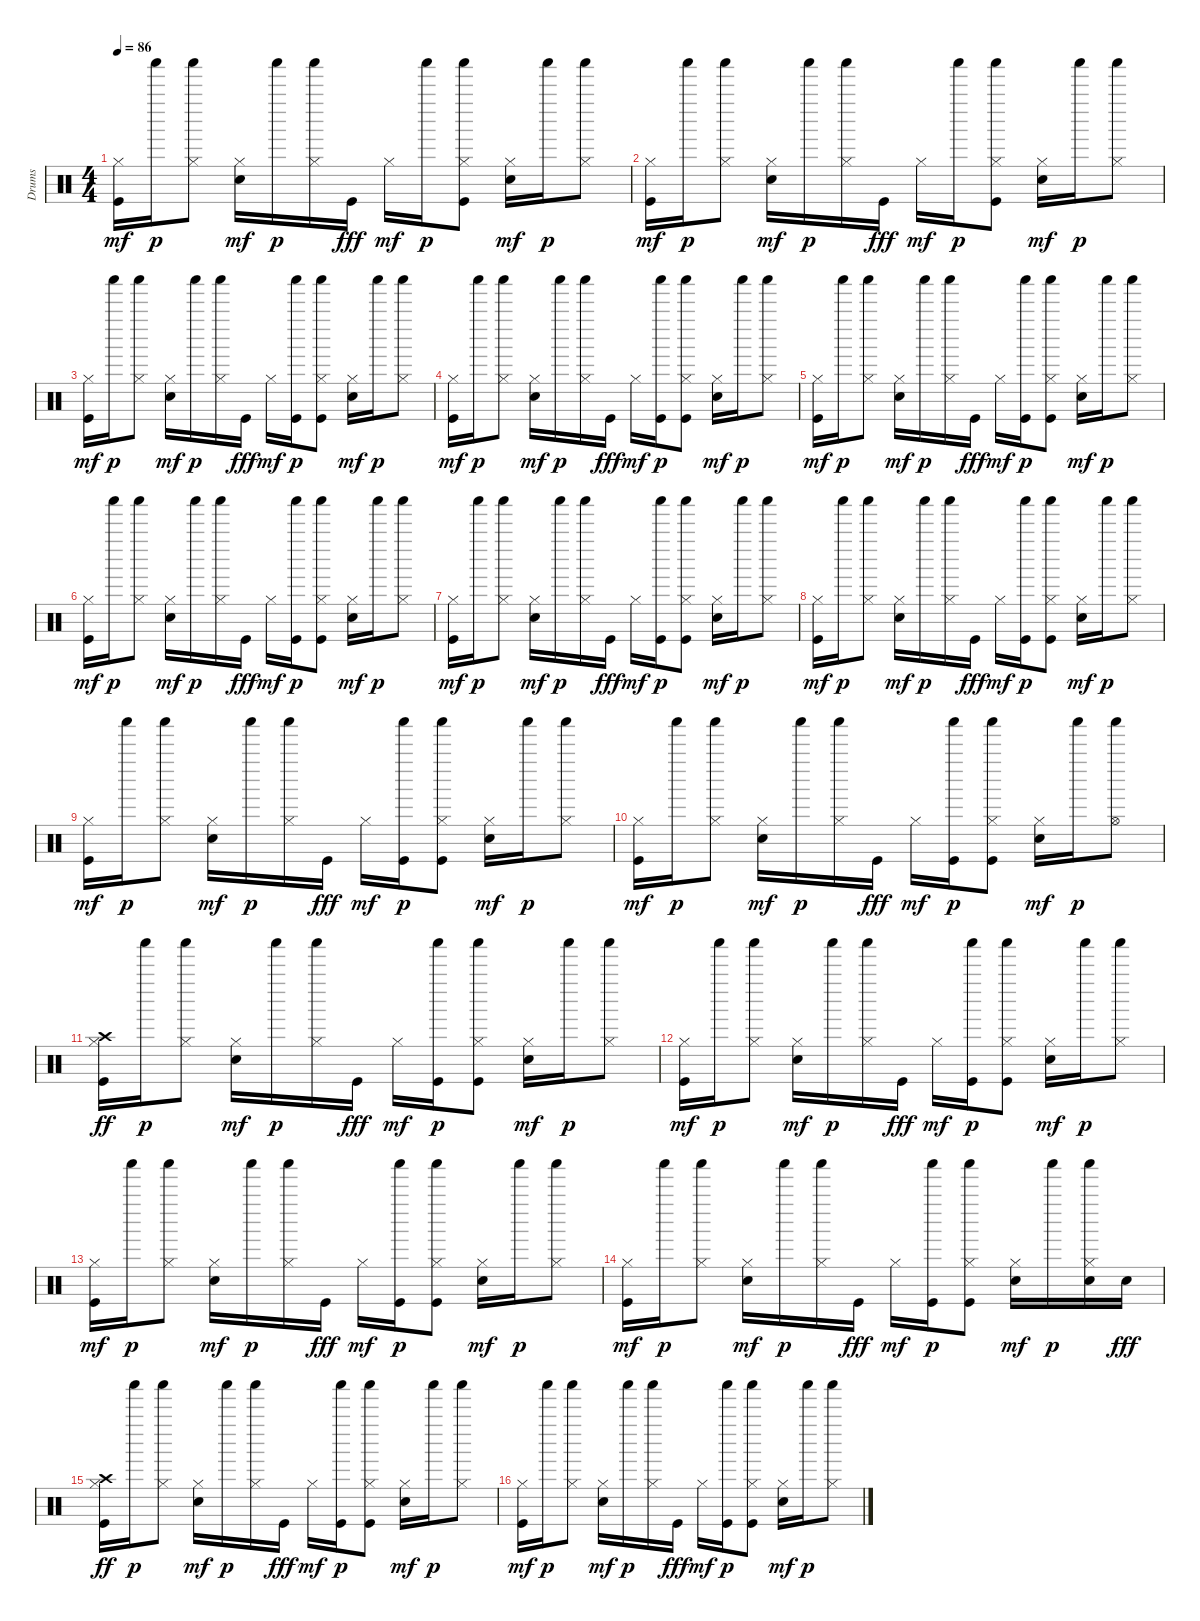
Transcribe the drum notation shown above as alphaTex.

\track ("Drums               " "Drums     ") {instrument percussion}
\staff {score}
\articulation defaults
\ts (4 4)
\tempo 86
\clef neutral
\ks c
("Kick (hit)" "Hi-Hat (closed)").16{dy mf} "Shaker (hit)".16{dy p} ("Hi-Hat (closed)" "Shaker (hit)").8 ("Snare (hit) 2" "Hi-Hat (closed)").16{dy mf} "Shaker (hit)".16{dy p} ("Hi-Hat (closed)" "Shaker (hit)").16 "Kick (hit)".16{dy fff} "Hi-Hat (closed)".16{dy mf} "Shaker (hit)".16{dy p} ("Kick (hit)" "Hi-Hat (closed)" "Shaker (hit)").8 ("Snare (hit) 2" "Hi-Hat (closed)").16{dy mf} "Shaker (hit)".16{dy p} ("Hi-Hat (closed)" "Shaker (hit)").8 |
("Kick (hit)" "Hi-Hat (closed)").16{dy mf} "Shaker (hit)".16{dy p} ("Hi-Hat (closed)" "Shaker (hit)").8 ("Snare (hit) 2" "Hi-Hat (closed)").16{dy mf} "Shaker (hit)".16{dy p} ("Hi-Hat (closed)" "Shaker (hit)").16 "Kick (hit)".16{dy fff} "Hi-Hat (closed)".16{dy mf} "Shaker (hit)".16{dy p} ("Kick (hit)" "Hi-Hat (closed)" "Shaker (hit)").8 ("Snare (hit) 2" "Hi-Hat (closed)").16{dy mf} "Shaker (hit)".16{dy p} ("Hi-Hat (closed)" "Shaker (hit)").8 |
("Kick (hit)" "Hi-Hat (closed)").16{dy mf} "Shaker (hit)".16{dy p} ("Hi-Hat (closed)" "Shaker (hit)").8 ("Snare (hit) 2" "Hi-Hat (closed)").16{dy mf} "Shaker (hit)".16{dy p} ("Hi-Hat (closed)" "Shaker (hit)").16 "Kick (hit)".16{dy fff} "Hi-Hat (closed)".16{dy mf} ("Kick (hit)" "Shaker (hit)").16{dy p} ("Kick (hit)" "Hi-Hat (closed)" "Shaker (hit)").8 ("Snare (hit) 2" "Hi-Hat (closed)").16{dy mf} "Shaker (hit)".16{dy p} ("Hi-Hat (closed)" "Shaker (hit)").8 |
("Kick (hit)" "Hi-Hat (closed)").16{dy mf} "Shaker (hit)".16{dy p} ("Hi-Hat (closed)" "Shaker (hit)").8 ("Snare (hit) 2" "Hi-Hat (closed)").16{dy mf} "Shaker (hit)".16{dy p} ("Hi-Hat (closed)" "Shaker (hit)").16 "Kick (hit)".16{dy fff} "Hi-Hat (closed)".16{dy mf} ("Kick (hit)" "Shaker (hit)").16{dy p} ("Kick (hit)" "Hi-Hat (closed)" "Shaker (hit)").8 ("Snare (hit) 2" "Hi-Hat (closed)").16{dy mf} "Shaker (hit)".16{dy p} ("Hi-Hat (closed)" "Shaker (hit)").8 |
("Kick (hit)" "Hi-Hat (closed)").16{dy mf} "Shaker (hit)".16{dy p} ("Hi-Hat (closed)" "Shaker (hit)").8 ("Snare (hit) 2" "Hi-Hat (closed)").16{dy mf} "Shaker (hit)".16{dy p} ("Hi-Hat (closed)" "Shaker (hit)").16 "Kick (hit)".16{dy fff} "Hi-Hat (closed)".16{dy mf} ("Kick (hit)" "Shaker (hit)").16{dy p} ("Kick (hit)" "Hi-Hat (closed)" "Shaker (hit)").8 ("Snare (hit) 2" "Hi-Hat (closed)").16{dy mf} "Shaker (hit)".16{dy p} ("Hi-Hat (closed)" "Shaker (hit)").8 |
("Kick (hit)" "Hi-Hat (closed)").16{dy mf} "Shaker (hit)".16{dy p} ("Hi-Hat (closed)" "Shaker (hit)").8 ("Snare (hit) 2" "Hi-Hat (closed)").16{dy mf} "Shaker (hit)".16{dy p} ("Hi-Hat (closed)" "Shaker (hit)").16 "Kick (hit)".16{dy fff} "Hi-Hat (closed)".16{dy mf} ("Kick (hit)" "Shaker (hit)").16{dy p} ("Kick (hit)" "Hi-Hat (closed)" "Shaker (hit)").8 ("Snare (hit) 2" "Hi-Hat (closed)").16{dy mf} "Shaker (hit)".16{dy p} ("Hi-Hat (closed)" "Shaker (hit)").8 |
("Kick (hit)" "Hi-Hat (closed)").16{dy mf} "Shaker (hit)".16{dy p} ("Hi-Hat (closed)" "Shaker (hit)").8 ("Snare (hit) 2" "Hi-Hat (closed)").16{dy mf} "Shaker (hit)".16{dy p} ("Hi-Hat (closed)" "Shaker (hit)").16 "Kick (hit)".16{dy fff} "Hi-Hat (closed)".16{dy mf} ("Kick (hit)" "Shaker (hit)").16{dy p} ("Kick (hit)" "Hi-Hat (closed)" "Shaker (hit)").8 ("Snare (hit) 2" "Hi-Hat (closed)").16{dy mf} "Shaker (hit)".16{dy p} ("Hi-Hat (closed)" "Shaker (hit)").8 |
("Kick (hit)" "Hi-Hat (closed)").16{dy mf} "Shaker (hit)".16{dy p} ("Hi-Hat (closed)" "Shaker (hit)").8 ("Snare (hit) 2" "Hi-Hat (closed)").16{dy mf} "Shaker (hit)".16{dy p} ("Hi-Hat (closed)" "Shaker (hit)").16 "Kick (hit)".16{dy fff} "Hi-Hat (closed)".16{dy mf} ("Kick (hit)" "Shaker (hit)").16{dy p} ("Kick (hit)" "Hi-Hat (closed)" "Shaker (hit)").8 ("Snare (hit) 2" "Hi-Hat (closed)").16{dy mf} "Shaker (hit)".16{dy p} ("Hi-Hat (closed)" "Shaker (hit)").8 |
("Kick (hit)" "Hi-Hat (closed)").16{dy mf} "Shaker (hit)".16{dy p} ("Hi-Hat (closed)" "Shaker (hit)").8 ("Snare (hit) 2" "Hi-Hat (closed)").16{dy mf} "Shaker (hit)".16{dy p} ("Hi-Hat (closed)" "Shaker (hit)").16 "Kick (hit)".16{dy fff} "Hi-Hat (closed)".16{dy mf} ("Kick (hit)" "Shaker (hit)").16{dy p} ("Kick (hit)" "Hi-Hat (closed)" "Shaker (hit)").8 ("Snare (hit) 2" "Hi-Hat (closed)").16{dy mf} "Shaker (hit)".16{dy p} ("Hi-Hat (closed)" "Shaker (hit)").8 |
("Kick (hit)" "Hi-Hat (closed)").16{dy mf} "Shaker (hit)".16{dy p} ("Hi-Hat (closed)" "Shaker (hit)").8 ("Snare (hit) 2" "Hi-Hat (closed)").16{dy mf} "Shaker (hit)".16{dy p} ("Hi-Hat (closed)" "Shaker (hit)").16 "Kick (hit)".16{dy fff} "Hi-Hat (closed)".16{dy mf} ("Kick (hit)" "Shaker (hit)").16{dy p} ("Kick (hit)" "Hi-Hat (closed)" "Shaker (hit)").8 ("Snare (hit) 2" "Hi-Hat (closed)").16{dy mf} "Shaker (hit)".16{dy p} ("Hi-Hat (open)" "Shaker (hit)").8 |
("Kick (hit)" "Hi-Hat (closed)" "Crash high (hit)").16{dy ff} "Shaker (hit)".16{dy p} ("Hi-Hat (closed)" "Shaker (hit)").8 ("Snare (hit) 2" "Hi-Hat (closed)").16{dy mf} "Shaker (hit)".16{dy p} ("Hi-Hat (closed)" "Shaker (hit)").16 "Kick (hit)".16{dy fff} "Hi-Hat (closed)".16{dy mf} ("Kick (hit)" "Shaker (hit)").16{dy p} ("Kick (hit)" "Hi-Hat (closed)" "Shaker (hit)").8 ("Snare (hit) 2" "Hi-Hat (closed)").16{dy mf} "Shaker (hit)".16{dy p} ("Hi-Hat (closed)" "Shaker (hit)").8 |
("Kick (hit)" "Hi-Hat (closed)").16{dy mf} "Shaker (hit)".16{dy p} ("Hi-Hat (closed)" "Shaker (hit)").8 ("Snare (hit) 2" "Hi-Hat (closed)").16{dy mf} "Shaker (hit)".16{dy p} ("Hi-Hat (closed)" "Shaker (hit)").16 "Kick (hit)".16{dy fff} "Hi-Hat (closed)".16{dy mf} ("Kick (hit)" "Shaker (hit)").16{dy p} ("Kick (hit)" "Hi-Hat (closed)" "Shaker (hit)").8 ("Snare (hit) 2" "Hi-Hat (closed)").16{dy mf} "Shaker (hit)".16{dy p} ("Hi-Hat (closed)" "Shaker (hit)").8 |
("Kick (hit)" "Hi-Hat (closed)").16{dy mf} "Shaker (hit)".16{dy p} ("Hi-Hat (closed)" "Shaker (hit)").8 ("Snare (hit) 2" "Hi-Hat (closed)").16{dy mf} "Shaker (hit)".16{dy p} ("Hi-Hat (closed)" "Shaker (hit)").16 "Kick (hit)".16{dy fff} "Hi-Hat (closed)".16{dy mf} ("Kick (hit)" "Shaker (hit)").16{dy p} ("Kick (hit)" "Hi-Hat (closed)" "Shaker (hit)").8 ("Snare (hit) 2" "Hi-Hat (closed)").16{dy mf} "Shaker (hit)".16{dy p} ("Hi-Hat (closed)" "Shaker (hit)").8 |
("Kick (hit)" "Hi-Hat (closed)").16{dy mf} "Shaker (hit)".16{dy p} ("Hi-Hat (closed)" "Shaker (hit)").8 ("Snare (hit) 2" "Hi-Hat (closed)").16{dy mf} "Shaker (hit)".16{dy p} ("Hi-Hat (closed)" "Shaker (hit)").16 "Kick (hit)".16{dy fff} "Hi-Hat (closed)".16{dy mf} ("Kick (hit)" "Shaker (hit)").16{dy p} ("Kick (hit)" "Hi-Hat (closed)" "Shaker (hit)").8 ("Snare (hit) 2" "Hi-Hat (closed)").16{dy mf} "Shaker (hit)".16{dy p} ("Snare (hit) 2" "Hi-Hat (closed)" "Shaker (hit)").16 "Snare (hit) 2".16{dy fff} |
("Kick (hit)" "Hi-Hat (closed)" "Crash high (hit)").16{dy ff} "Shaker (hit)".16{dy p} ("Hi-Hat (closed)" "Shaker (hit)").8 ("Snare (hit) 2" "Hi-Hat (closed)").16{dy mf} "Shaker (hit)".16{dy p} ("Hi-Hat (closed)" "Shaker (hit)").16 "Kick (hit)".16{dy fff} "Hi-Hat (closed)".16{dy mf} ("Kick (hit)" "Shaker (hit)").16{dy p} ("Kick (hit)" "Hi-Hat (closed)" "Shaker (hit)").8 ("Snare (hit) 2" "Hi-Hat (closed)").16{dy mf} "Shaker (hit)".16{dy p} ("Hi-Hat (closed)" "Shaker (hit)").8 |
("Kick (hit)" "Hi-Hat (closed)").16{dy mf} "Shaker (hit)".16{dy p} ("Hi-Hat (closed)" "Shaker (hit)").8 ("Snare (hit) 2" "Hi-Hat (closed)").16{dy mf} "Shaker (hit)".16{dy p} ("Hi-Hat (closed)" "Shaker (hit)").16 "Kick (hit)".16{dy fff} "Hi-Hat (closed)".16{dy mf} ("Kick (hit)" "Shaker (hit)").16{dy p} ("Kick (hit)" "Hi-Hat (closed)" "Shaker (hit)").8 ("Snare (hit) 2" "Hi-Hat (closed)").16{dy mf} "Shaker (hit)".16{dy p} ("Hi-Hat (closed)" "Shaker (hit)").8
